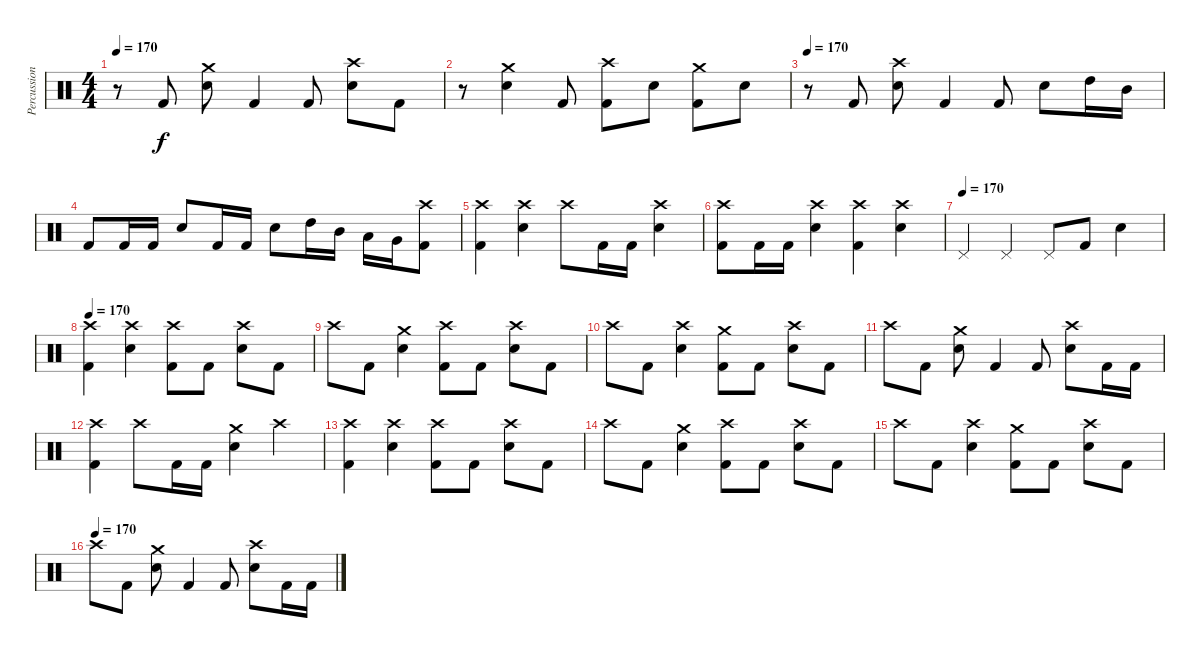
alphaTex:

\track ("Percussion" "Percussion") {instrument percussion}
\staff {score}
\articulation defaults
\ts (4 4)
\tempo 170
\clef neutral
\ks c
r.8{dy f} "Kick (hit) 2".8 ("Crash medium (hit)" "Electric Snare (hit)").8 "Kick (hit) 2".4 "Kick (hit) 2".8 ("Crash high (hit)" "Electric Snare (hit)").8 "Kick (hit) 2".8 |
r.8 ("Crash medium (hit)" "Electric Snare (hit)").4 "Kick (hit) 2".8 ("Crash high (hit)" "Kick (hit) 2").8 "Electric Snare (hit)".8 ("Crash medium (hit)" "Kick (hit) 2").8 "Electric Snare (hit)".8 |
\tempo 170
r.8 "Kick (hit) 2".8 ("Crash high (hit)" "Electric Snare (hit)").8 "Kick (hit) 2".4 "Kick (hit) 2".8 "Electric Snare (hit)".8 "High Tom (hit)".16 "Mid Tom (hit)".16 |
"Kick (hit) 2".8 "Kick (hit) 2".16 "Kick (hit) 2".16 "Electric Snare (hit)".8 "Kick (hit) 2".16 "Kick (hit) 2".16 "Electric Snare (hit)".8 "High Tom (hit)".16 "Mid Tom (hit)".16 "Low Tom (hit)".16 "Very Low Tom (hit)".16 ("Crash high (hit)" "Kick (hit) 2").8 |
("Crash high (hit)" "Kick (hit) 2").4 ("Crash high (hit)" "Electric Snare (hit)").4 "Crash high (hit)".8 "Kick (hit) 2".16 "Kick (hit) 2".16 ("Crash high (hit)" "Electric Snare (hit)").4 |
("Crash high (hit)" "Kick (hit) 2").8 "Kick (hit) 2".16 "Kick (hit) 2".16 ("Crash high (hit)" "Electric Snare (hit)").4 ("Crash high (hit)" "Kick (hit) 2").4 ("Crash high (hit)" "Electric Snare (hit)").4 |
\tempo (170)
"Pedal Hi-Hat (hit)".4 "Pedal Hi-Hat (hit)".4 "Pedal Hi-Hat (hit)".8 "Kick (hit) 2".8 "Electric Snare (hit)".4 |
\tempo 170
("Crash high (hit)" "Kick (hit) 2").4 ("Crash high (hit)" "Electric Snare (hit)").4 ("Crash high (hit)" "Kick (hit) 2").8 "Kick (hit) 2".8 ("Crash high (hit)" "Electric Snare (hit)").8 "Kick (hit) 2".8 |
"Crash high (hit)".8 "Kick (hit) 2".8 ("Crash medium (hit)" "Electric Snare (hit)").4 ("Crash high (hit)" "Kick (hit) 2").8 "Kick (hit) 2".8 ("Crash high (hit)" "Electric Snare (hit)").8 "Kick (hit) 2".8 |
"Crash high (hit)".8 "Kick (hit) 2".8 ("Crash high (hit)" "Electric Snare (hit)").4 ("Crash medium (hit)" "Kick (hit) 2").8 "Kick (hit) 2".8 ("Crash high (hit)" "Electric Snare (hit)").8 "Kick (hit) 2".8 |
"Crash high (hit)".8 "Kick (hit) 2".8 ("Crash medium (hit)" "Electric Snare (hit)").8 "Kick (hit) 2".4 "Kick (hit) 2".8 ("Crash high (hit)" "Electric Snare (hit)").8 "Kick (hit) 2".16 "Kick (hit) 2".16 |
("Crash high (hit)" "Kick (hit) 2").4 "Crash high (hit)".8 "Kick (hit) 2".16 "Kick (hit) 2".16 ("Crash medium (hit)" "Electric Snare (hit)").4 "Crash high (hit)".4 |
("Crash high (hit)" "Kick (hit) 2").4 ("Crash high (hit)" "Electric Snare (hit)").4 ("Crash high (hit)" "Kick (hit) 2").8 "Kick (hit) 2".8 ("Crash high (hit)" "Electric Snare (hit)").8 "Kick (hit) 2".8 |
"Crash high (hit)".8 "Kick (hit) 2".8 ("Crash medium (hit)" "Electric Snare (hit)").4 ("Crash high (hit)" "Kick (hit) 2").8 "Kick (hit) 2".8 ("Crash high (hit)" "Electric Snare (hit)").8 "Kick (hit) 2".8 |
"Crash high (hit)".8 "Kick (hit) 2".8 ("Crash high (hit)" "Electric Snare (hit)").4 ("Crash medium (hit)" "Kick (hit) 2").8 "Kick (hit) 2".8 ("Crash high (hit)" "Electric Snare (hit)").8 "Kick (hit) 2".8 |
\tempo (170)
"Crash high (hit)".8 "Kick (hit) 2".8 ("Crash medium (hit)" "Electric Snare (hit)").8 "Kick (hit) 2".4 "Kick (hit) 2".8 ("Crash high (hit)" "Electric Snare (hit)").8 "Kick (hit) 2".16 "Kick (hit) 2".16
